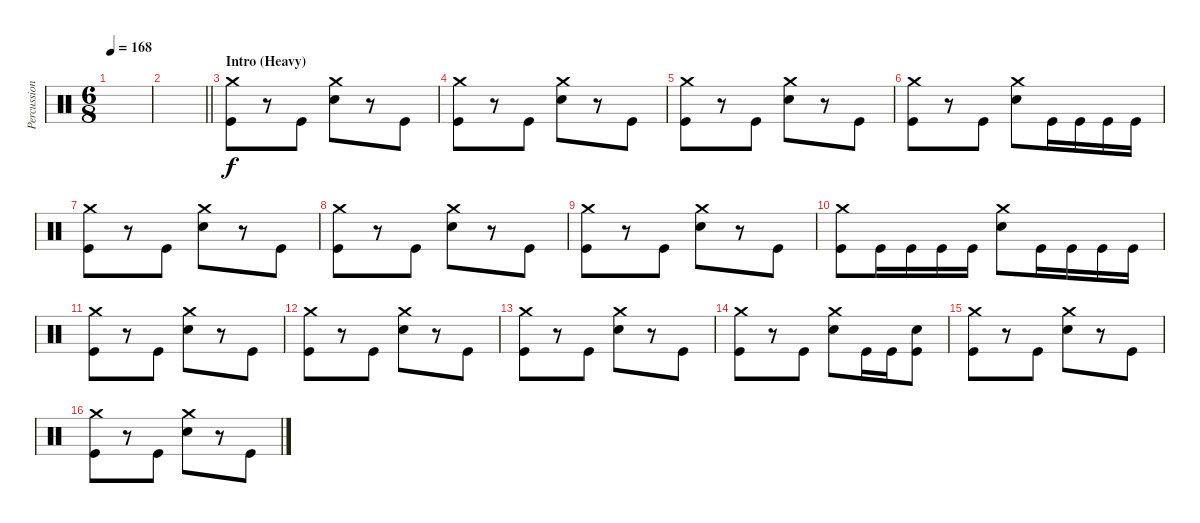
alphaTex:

\track ("Percussion" "Percussion") {instrument percussion}
\staff {score}
\articulation defaults
\ts (6 8)
\tempo 168
\clef neutral
\ks c
|
\barLineRight lightlight
|
\section ("" "Intro (Heavy)")
("Crash medium (hit)" "Kick (hit)").8 r.8 "Kick (hit)".8 ("Crash medium (hit)" "Snare (hit) 2").8 r.8 "Kick (hit)".8 |
("Crash medium (hit)" "Kick (hit)").8 r.8 "Kick (hit)".8 ("Crash medium (hit)" "Snare (hit) 2").8 r.8 "Kick (hit)".8 |
("Crash medium (hit)" "Kick (hit)").8 r.8 "Kick (hit)".8 ("Crash medium (hit)" "Snare (hit) 2").8 r.8 "Kick (hit)".8 |
("Crash medium (hit)" "Kick (hit)").8 r.8 "Kick (hit)".8 ("Crash medium (hit)" "Snare (hit) 2").8 "Kick (hit)".16 "Kick (hit)".16 "Kick (hit)".16 "Kick (hit)".16 |
("Crash medium (hit)" "Kick (hit)").8 r.8 "Kick (hit)".8 ("Crash medium (hit)" "Snare (hit) 2").8 r.8 "Kick (hit)".8 |
("Crash medium (hit)" "Kick (hit)").8 r.8 "Kick (hit)".8 ("Crash medium (hit)" "Snare (hit) 2").8 r.8 "Kick (hit)".8 |
("Crash medium (hit)" "Kick (hit)").8 r.8 "Kick (hit)".8 ("Crash medium (hit)" "Snare (hit) 2").8 r.8 "Kick (hit)".8 |
("Crash medium (hit)" "Kick (hit)").8 "Kick (hit)".16 "Kick (hit)".16 "Kick (hit)".16 "Kick (hit)".16 ("Crash medium (hit)" "Snare (hit) 2").8 "Kick (hit)".16 "Kick (hit)".16 "Kick (hit)".16 "Kick (hit)".16 |
("Crash medium (hit)" "Kick (hit)").8 r.8 "Kick (hit)".8 ("Crash medium (hit)" "Snare (hit) 2").8 r.8 "Kick (hit)".8 |
("Crash medium (hit)" "Kick (hit)").8 r.8 "Kick (hit)".8 ("Crash medium (hit)" "Snare (hit) 2").8 r.8 "Kick (hit)".8 |
("Crash medium (hit)" "Kick (hit)").8 r.8 "Kick (hit)".8 ("Crash medium (hit)" "Snare (hit) 2").8 r.8 "Kick (hit)".8 |
("Crash medium (hit)" "Kick (hit)").8 r.8 "Kick (hit)".8 ("Crash medium (hit)" "Snare (hit) 2").8 "Kick (hit)".16 "Kick (hit)".16 ("Snare (hit) 2" "Kick (hit)").8 |
("Crash medium (hit)" "Kick (hit)").8 r.8 "Kick (hit)".8 ("Crash medium (hit)" "Snare (hit) 2").8 r.8 "Kick (hit)".8 |
("Crash medium (hit)" "Kick (hit)").8 r.8 "Kick (hit)".8 ("Crash medium (hit)" "Snare (hit) 2").8 r.8 "Kick (hit)".8
